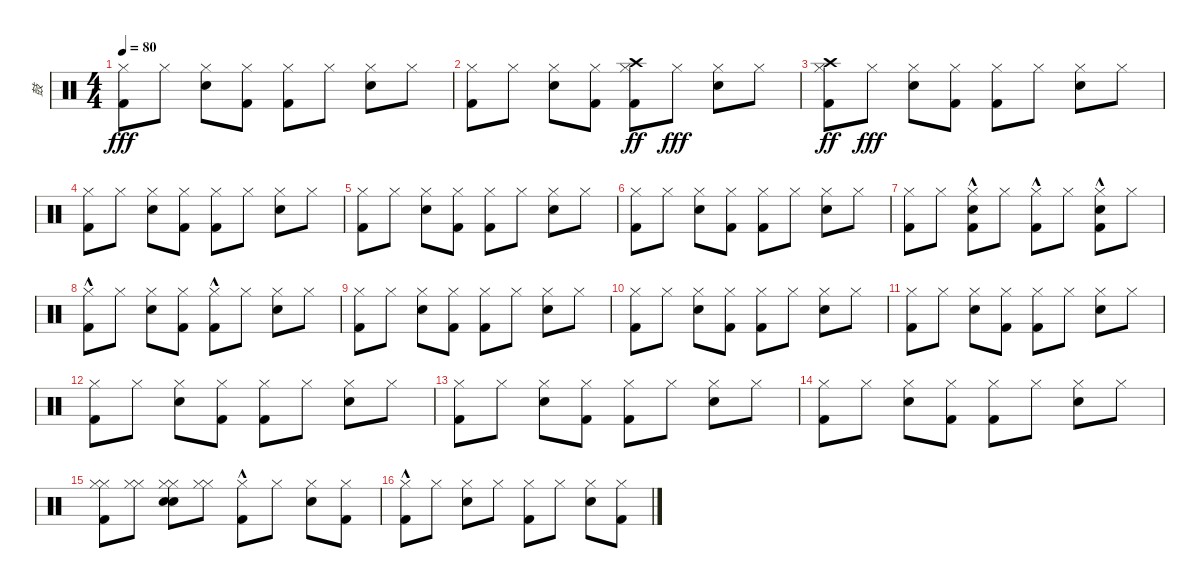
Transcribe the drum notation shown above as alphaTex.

\track ("鼓" "鼓") {instrument percussion}
\staff {score}
\articulation defaults
\ts (4 4)
\tempo 80
\clef neutral
\ks c
("Kick (hit) 2" "Hi-Hat (closed)").8{dy fff} "Hi-Hat (closed)".8 ("Snare (hit) 2" "Hi-Hat (closed)").8 ("Kick (hit) 2" "Hi-Hat (closed)").8 ("Kick (hit) 2" "Hi-Hat (closed)").8 "Hi-Hat (closed)".8 ("Snare (hit) 2" "Hi-Hat (closed)").8 "Hi-Hat (closed)".8 |
("Kick (hit) 2" "Hi-Hat (closed)").8 "Hi-Hat (closed)".8 ("Snare (hit) 2" "Hi-Hat (closed)").8 ("Kick (hit) 2" "Hi-Hat (closed)").8 ("Kick (hit) 2" "Hi-Hat (closed)" "Crash high (hit)").8{dy ff} "Hi-Hat (closed)".8{dy fff} ("Snare (hit) 2" "Hi-Hat (closed)").8 "Hi-Hat (closed)".8 |
("Kick (hit) 2" "Hi-Hat (closed)" "Crash high (hit)").8{dy ff} "Hi-Hat (closed)".8{dy fff} ("Snare (hit) 2" "Hi-Hat (closed)").8 ("Kick (hit) 2" "Hi-Hat (closed)").8 ("Kick (hit) 2" "Hi-Hat (closed)").8 "Hi-Hat (closed)".8 ("Snare (hit) 2" "Hi-Hat (closed)").8 "Hi-Hat (closed)".8 |
("Kick (hit) 2" "Hi-Hat (closed)").8 "Hi-Hat (closed)".8 ("Snare (hit) 2" "Hi-Hat (closed)").8 ("Kick (hit) 2" "Hi-Hat (closed)").8 ("Hi-Hat (closed)" "Kick (hit) 2").8 "Hi-Hat (closed)".8 ("Hi-Hat (closed)" "Snare (hit) 2").8 "Hi-Hat (closed)".8 |
("Hi-Hat (closed)" "Kick (hit) 2").8 "Hi-Hat (closed)".8 ("Hi-Hat (closed)" "Snare (hit) 2").8 ("Hi-Hat (closed)" "Kick (hit) 2").8 ("Kick (hit) 2" "Hi-Hat (closed)").8 "Hi-Hat (closed)".8 ("Snare (hit) 2" "Hi-Hat (closed)").8 "Hi-Hat (closed)".8 |
("Kick (hit) 2" "Hi-Hat (closed)").8 "Hi-Hat (closed)".8 ("Snare (hit) 2" "Hi-Hat (closed)").8 ("Kick (hit) 2" "Hi-Hat (closed)").8 ("Hi-Hat (closed)" "Kick (hit) 2").8 "Hi-Hat (closed)".8 ("Hi-Hat (closed)" "Snare (hit) 2").8 "Hi-Hat (closed)".8 |
("Kick (hit) 2" "Hi-Hat (closed)").8 "Hi-Hat (closed)".8 ("Snare (hit) 2" "Hi-Hat (closed)" "Kick (hit) 2"{hac}).8 "Hi-Hat (closed)".8 ("Hi-Hat (closed)" "Kick (hit) 2"{hac}).8 "Hi-Hat (closed)".8 ("Snare (hit) 2" "Kick (hit) 2"{hac} "Hi-Hat (closed)").8 "Hi-Hat (closed)".8 |
("Hi-Hat (closed)" "Kick (hit) 2"{hac}).8 "Hi-Hat (closed)".8 ("Snare (hit) 2" "Hi-Hat (closed)").8 ("Hi-Hat (closed)" "Kick (hit) 2").8 ("Kick (hit) 2"{hac} "Hi-Hat (closed)").8 "Hi-Hat (closed)".8 ("Snare (hit) 2" "Hi-Hat (closed)").8 "Hi-Hat (closed)".8 |
("Kick (hit) 2" "Hi-Hat (closed)").8 "Hi-Hat (closed)".8 ("Snare (hit) 2" "Hi-Hat (closed)").8 ("Kick (hit) 2" "Hi-Hat (closed)").8 ("Kick (hit) 2" "Hi-Hat (closed)").8 "Hi-Hat (closed)".8 ("Snare (hit) 2" "Hi-Hat (closed)").8 "Hi-Hat (closed)".8 |
("Kick (hit) 2" "Hi-Hat (closed)").8 "Hi-Hat (closed)".8 ("Snare (hit) 2" "Hi-Hat (closed)").8 ("Kick (hit) 2" "Hi-Hat (closed)").8 ("Kick (hit) 2" "Hi-Hat (closed)").8 "Hi-Hat (closed)".8 ("Snare (hit) 2" "Hi-Hat (closed)").8 "Hi-Hat (closed)".8 |
("Kick (hit) 2" "Hi-Hat (closed)").8 "Hi-Hat (closed)".8 ("Snare (hit) 2" "Hi-Hat (closed)").8 ("Kick (hit) 2" "Hi-Hat (closed)").8 ("Kick (hit) 2" "Hi-Hat (closed)").8 "Hi-Hat (closed)".8 ("Snare (hit) 2" "Hi-Hat (closed)").8 "Hi-Hat (closed)".8 |
("Kick (hit) 2" "Hi-Hat (closed)").8 "Hi-Hat (closed)".8 ("Snare (hit) 2" "Hi-Hat (closed)").8 ("Kick (hit) 2" "Hi-Hat (closed)").8 ("Hi-Hat (closed)" "Kick (hit) 2").8 "Hi-Hat (closed)".8 ("Hi-Hat (closed)" "Snare (hit) 2").8 "Hi-Hat (closed)".8 |
("Hi-Hat (closed)" "Kick (hit) 2").8 "Hi-Hat (closed)".8 ("Hi-Hat (closed)" "Snare (hit) 2").8 ("Hi-Hat (closed)" "Kick (hit) 2").8 ("Kick (hit) 2" "Hi-Hat (closed)").8 "Hi-Hat (closed)".8 ("Snare (hit) 2" "Hi-Hat (closed)").8 "Hi-Hat (closed)".8 |
("Kick (hit) 2" "Hi-Hat (closed)").8 "Hi-Hat (closed)".8 ("Snare (hit) 2" "Hi-Hat (closed)").8 ("Kick (hit) 2" "Hi-Hat (closed)").8 ("Hi-Hat (closed)" "Kick (hit) 2").8 "Hi-Hat (closed)".8 ("Hi-Hat (closed)" "Snare (hit) 2").8 "Hi-Hat (closed)".8 |
("Hi-Hat (closed)" "Kick (hit) 2" "Hi-Hat (closed)").8 ("Hi-Hat (closed)" "Hi-Hat (closed)").8 ("Hi-Hat (closed)" "Snare (hit) 2" "Snare (hit) 2" "Hi-Hat (closed)").8 ("Hi-Hat (closed)" "Hi-Hat (closed)").8 ("Kick (hit) 2"{hac} "Hi-Hat (closed)").8 "Hi-Hat (closed)".8 ("Snare (hit) 2" "Hi-Hat (closed)").8 ("Kick (hit) 2" "Hi-Hat (closed)").8 |
("Kick (hit) 2"{hac} "Hi-Hat (closed)").8 "Hi-Hat (closed)".8 ("Snare (hit) 2" "Hi-Hat (closed)").8 "Hi-Hat (closed)".8 ("Kick (hit) 2" "Hi-Hat (closed)").8 "Hi-Hat (closed)".8 ("Snare (hit) 2" "Hi-Hat (closed)").8 ("Kick (hit) 2" "Hi-Hat (closed)").8
